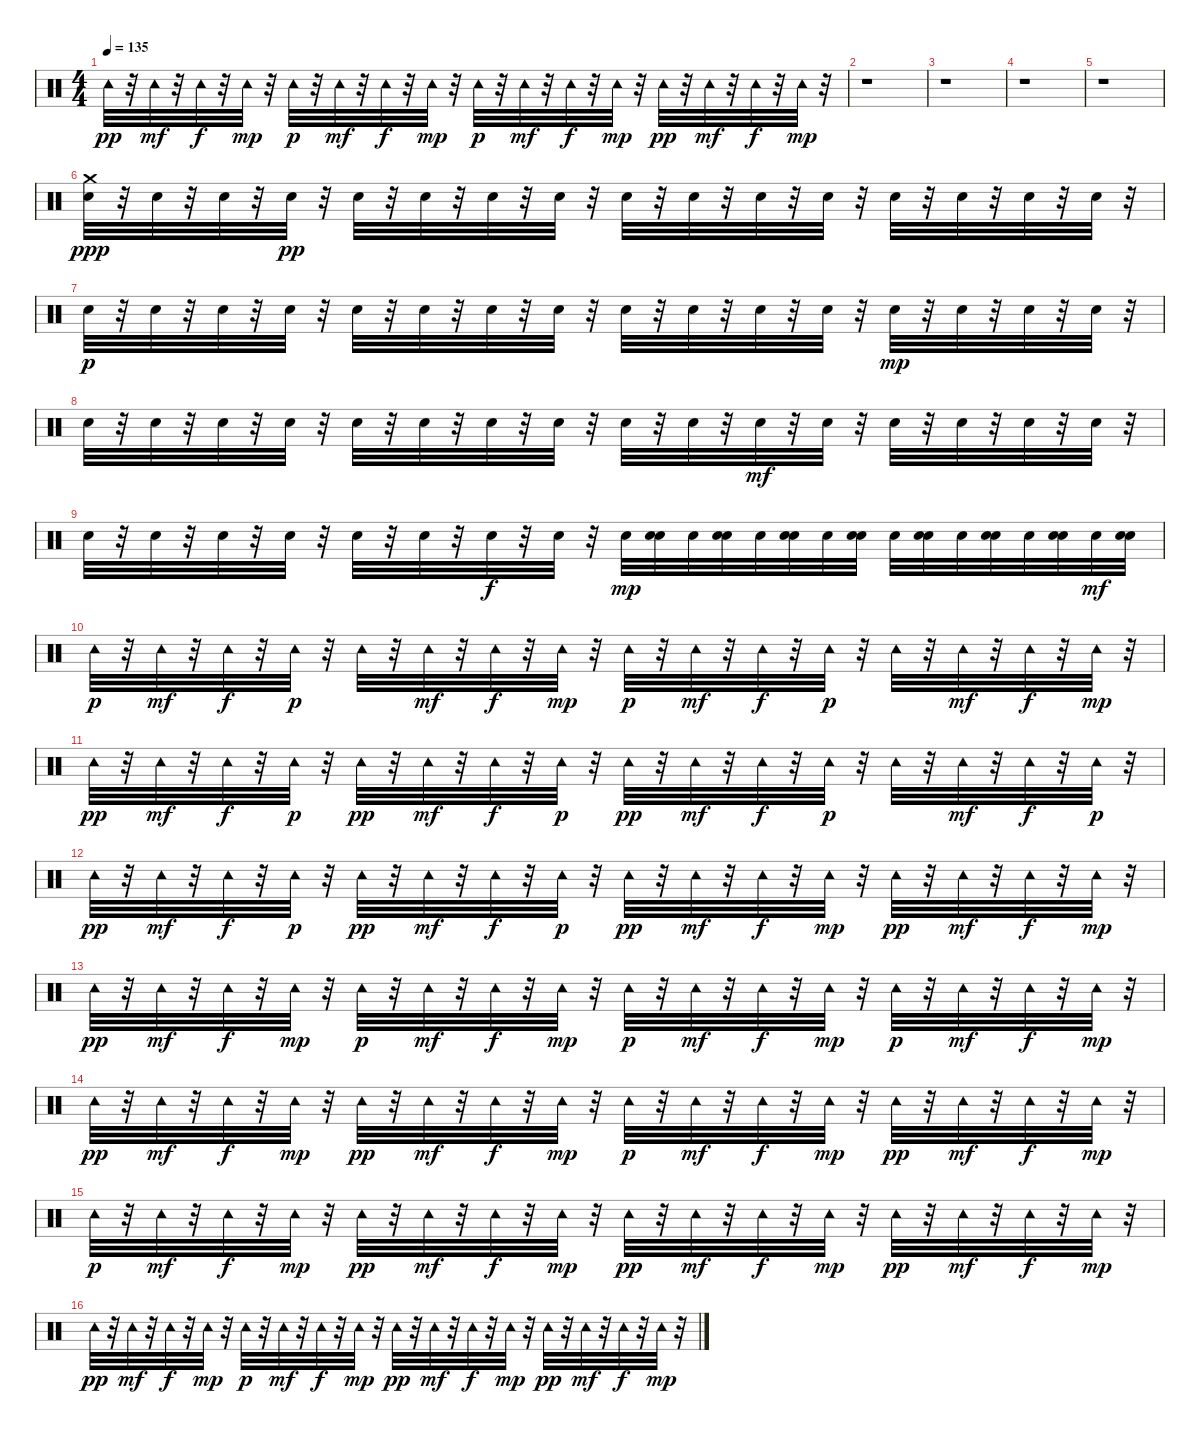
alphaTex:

\track "" {instrument percussion}
\staff {score}
\articulation defaults
\ts (4 4)
\tempo 135
\clef neutral
\ks c "Tambourine (hit)".32{dy pp}
r.32 "Tambourine (hit)".32{dy mf} r.32 "Tambourine (hit)".32{dy f} r.32 "Tambourine (hit)".32{dy mp} r.32 "Tambourine (hit)".32{dy p} r.32 "Tambourine (hit)".32{dy mf} r.32 "Tambourine (hit)".32{dy f} r.32 "Tambourine (hit)".32{dy mp} r.32 "Tambourine (hit)".32{dy p} r.32 "Tambourine (hit)".32{dy mf} r.32 "Tambourine (hit)".32{dy f} r.32 "Tambourine (hit)".32{dy mp} r.32 "Tambourine (hit)".32{dy pp} r.32 "Tambourine (hit)".32{dy mf} r.32 "Tambourine (hit)".32{dy f} r.32 "Tambourine (hit)".32{dy mp} r.32 |
r.1 |
r.1 |
r.1 |
r.1 |
("Crash medium (hit)" "Snare (hit) 2").32{dy ppp} r.32 "Snare (hit) 2".32 r.32 "Snare (hit) 2".32 r.32 "Snare (hit) 2".32{dy pp} r.32 "Snare (hit) 2".32 r.32 "Snare (hit) 2".32 r.32 "Snare (hit) 2".32 r.32 "Snare (hit) 2".32 r.32 "Snare (hit) 2".32 r.32 "Snare (hit) 2".32 r.32 "Snare (hit) 2".32 r.32 "Snare (hit) 2".32 r.32 "Snare (hit) 2".32 r.32 "Snare (hit) 2".32 r.32 "Snare (hit) 2".32 r.32 "Snare (hit) 2".32 r.32 |
"Snare (hit) 2".32{dy p} r.32 "Snare (hit) 2".32 r.32 "Snare (hit) 2".32 r.32 "Snare (hit) 2".32 r.32 "Snare (hit) 2".32 r.32 "Snare (hit) 2".32 r.32 "Snare (hit) 2".32 r.32 "Snare (hit) 2".32 r.32 "Snare (hit) 2".32 r.32 "Snare (hit) 2".32 r.32 "Snare (hit) 2".32 r.32 "Snare (hit) 2".32 r.32 "Snare (hit) 2".32{dy mp} r.32 "Snare (hit) 2".32 r.32 "Snare (hit) 2".32 r.32 "Snare (hit) 2".32 r.32 |
"Snare (hit) 2".32 r.32 "Snare (hit) 2".32 r.32 "Snare (hit) 2".32 r.32 "Snare (hit) 2".32 r.32 "Snare (hit) 2".32 r.32 "Snare (hit) 2".32 r.32 "Snare (hit) 2".32 r.32 "Snare (hit) 2".32 r.32 "Snare (hit) 2".32 r.32 "Snare (hit) 2".32 r.32 "Snare (hit) 2".32{dy mf} r.32 "Snare (hit) 2".32 r.32 "Snare (hit) 2".32 r.32 "Snare (hit) 2".32 r.32 "Snare (hit) 2".32 r.32 "Snare (hit) 2".32 r.32 |
"Snare (hit) 2".32 r.32 "Snare (hit) 2".32 r.32 "Snare (hit) 2".32 r.32 "Snare (hit) 2".32 r.32 "Snare (hit) 2".32 r.32 "Snare (hit) 2".32 r.32 "Snare (hit) 2".32{dy f} r.32 "Snare (hit) 2".32 r.32 "Snare (hit) 2".32{dy mp} ("Snare (hit) 2" "Snare (hit) 2").32 "Snare (hit) 2".32 ("Snare (hit) 2" "Snare (hit) 2").32 "Snare (hit) 2".32 ("Snare (hit) 2" "Snare (hit) 2").32 "Snare (hit) 2".32 ("Snare (hit) 2" "Snare (hit) 2").32 "Snare (hit) 2".32 ("Snare (hit) 2" "Snare (hit) 2").32 "Snare (hit) 2".32 ("Snare (hit) 2" "Snare (hit) 2").32 "Snare (hit) 2".32 ("Snare (hit) 2" "Snare (hit) 2").32 "Snare (hit) 2".32{dy mf} ("Snare (hit) 2" "Snare (hit) 2").32 |
"Tambourine (hit)".32{dy p} r.32 "Tambourine (hit)".32{dy mf} r.32 "Tambourine (hit)".32{dy f} r.32 "Tambourine (hit)".32{dy p} r.32 "Tambourine (hit)".32 r.32 "Tambourine (hit)".32{dy mf} r.32 "Tambourine (hit)".32{dy f} r.32 "Tambourine (hit)".32{dy mp} r.32 "Tambourine (hit)".32{dy p} r.32 "Tambourine (hit)".32{dy mf} r.32 "Tambourine (hit)".32{dy f} r.32 "Tambourine (hit)".32{dy p} r.32 "Tambourine (hit)".32 r.32 "Tambourine (hit)".32{dy mf} r.32 "Tambourine (hit)".32{dy f} r.32 "Tambourine (hit)".32{dy mp} r.32 |
"Tambourine (hit)".32{dy pp} r.32 "Tambourine (hit)".32{dy mf} r.32 "Tambourine (hit)".32{dy f} r.32 "Tambourine (hit)".32{dy p} r.32 "Tambourine (hit)".32{dy pp} r.32 "Tambourine (hit)".32{dy mf} r.32 "Tambourine (hit)".32{dy f} r.32 "Tambourine (hit)".32{dy p} r.32 "Tambourine (hit)".32{dy pp} r.32 "Tambourine (hit)".32{dy mf} r.32 "Tambourine (hit)".32{dy f} r.32 "Tambourine (hit)".32{dy p} r.32 "Tambourine (hit)".32 r.32 "Tambourine (hit)".32{dy mf} r.32 "Tambourine (hit)".32{dy f} r.32 "Tambourine (hit)".32{dy p} r.32 |
"Tambourine (hit)".32{dy pp} r.32 "Tambourine (hit)".32{dy mf} r.32 "Tambourine (hit)".32{dy f} r.32 "Tambourine (hit)".32{dy p} r.32 "Tambourine (hit)".32{dy pp} r.32 "Tambourine (hit)".32{dy mf} r.32 "Tambourine (hit)".32{dy f} r.32 "Tambourine (hit)".32{dy p} r.32 "Tambourine (hit)".32{dy pp} r.32 "Tambourine (hit)".32{dy mf} r.32 "Tambourine (hit)".32{dy f} r.32 "Tambourine (hit)".32{dy mp} r.32 "Tambourine (hit)".32{dy pp} r.32 "Tambourine (hit)".32{dy mf} r.32 "Tambourine (hit)".32{dy f} r.32 "Tambourine (hit)".32{dy mp} r.32 |
"Tambourine (hit)".32{dy pp} r.32 "Tambourine (hit)".32{dy mf} r.32 "Tambourine (hit)".32{dy f} r.32 "Tambourine (hit)".32{dy mp} r.32 "Tambourine (hit)".32{dy p} r.32 "Tambourine (hit)".32{dy mf} r.32 "Tambourine (hit)".32{dy f} r.32 "Tambourine (hit)".32{dy mp} r.32 "Tambourine (hit)".32{dy p} r.32 "Tambourine (hit)".32{dy mf} r.32 "Tambourine (hit)".32{dy f} r.32 "Tambourine (hit)".32{dy mp} r.32 "Tambourine (hit)".32{dy p} r.32 "Tambourine (hit)".32{dy mf} r.32 "Tambourine (hit)".32{dy f} r.32 "Tambourine (hit)".32{dy mp} r.32 |
"Tambourine (hit)".32{dy pp} r.32 "Tambourine (hit)".32{dy mf} r.32 "Tambourine (hit)".32{dy f} r.32 "Tambourine (hit)".32{dy mp} r.32 "Tambourine (hit)".32{dy pp} r.32 "Tambourine (hit)".32{dy mf} r.32 "Tambourine (hit)".32{dy f} r.32 "Tambourine (hit)".32{dy mp} r.32 "Tambourine (hit)".32{dy p} r.32 "Tambourine (hit)".32{dy mf} r.32 "Tambourine (hit)".32{dy f} r.32 "Tambourine (hit)".32{dy mp} r.32 "Tambourine (hit)".32{dy pp} r.32 "Tambourine (hit)".32{dy mf} r.32 "Tambourine (hit)".32{dy f} r.32 "Tambourine (hit)".32{dy mp} r.32 |
"Tambourine (hit)".32{dy p} r.32 "Tambourine (hit)".32{dy mf} r.32 "Tambourine (hit)".32{dy f} r.32 "Tambourine (hit)".32{dy mp} r.32 "Tambourine (hit)".32{dy pp} r.32 "Tambourine (hit)".32{dy mf} r.32 "Tambourine (hit)".32{dy f} r.32 "Tambourine (hit)".32{dy mp} r.32 "Tambourine (hit)".32{dy pp} r.32 "Tambourine (hit)".32{dy mf} r.32 "Tambourine (hit)".32{dy f} r.32 "Tambourine (hit)".32{dy mp} r.32 "Tambourine (hit)".32{dy pp} r.32 "Tambourine (hit)".32{dy mf} r.32 "Tambourine (hit)".32{dy f} r.32 "Tambourine (hit)".32{dy mp} r.32 |
"Tambourine (hit)".32{dy pp} r.32 "Tambourine (hit)".32{dy mf} r.32 "Tambourine (hit)".32{dy f} r.32 "Tambourine (hit)".32{dy mp} r.32 "Tambourine (hit)".32{dy p} r.32 "Tambourine (hit)".32{dy mf} r.32 "Tambourine (hit)".32{dy f} r.32 "Tambourine (hit)".32{dy mp} r.32 "Tambourine (hit)".32{dy pp} r.32 "Tambourine (hit)".32{dy mf} r.32 "Tambourine (hit)".32{dy f} r.32 "Tambourine (hit)".32{dy mp} r.32 "Tambourine (hit)".32{dy pp} r.32 "Tambourine (hit)".32{dy mf} r.32 "Tambourine (hit)".32{dy f} r.32 "Tambourine (hit)".32{dy mp} r.32
